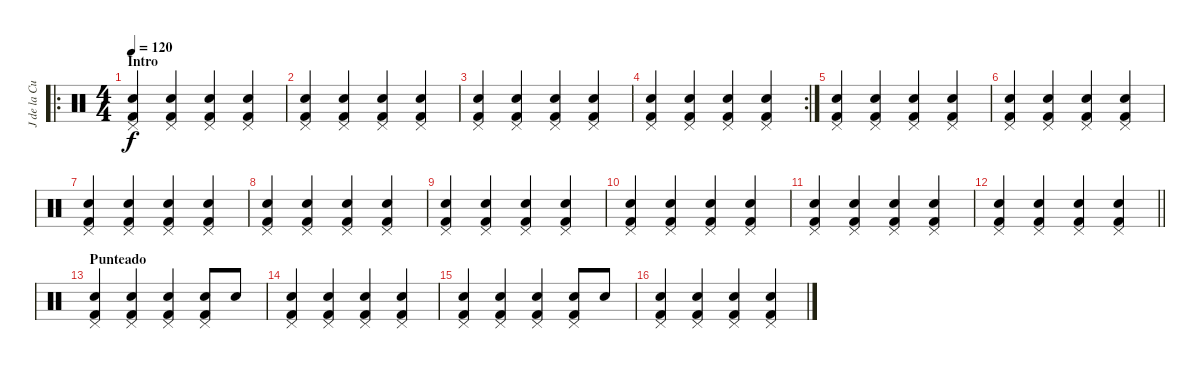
\track ("J de la Cueva" "J de la Cu") {instrument percussion}
\staff {score}
\articulation defaults
\ro
\ts (4 4)
\section ("" "Intro")
\tempo 120
\clef neutral
\ks c
("Snare (hit) 2" "Kick (hit) 2" "Pedal Hi-Hat (hit)").4{dy f} ("Snare (hit) 2" "Kick (hit) 2" "Pedal Hi-Hat (hit)").4 ("Snare (hit) 2" "Kick (hit) 2" "Pedal Hi-Hat (hit)").4 ("Snare (hit) 2" "Kick (hit) 2" "Pedal Hi-Hat (hit)").4 |
("Snare (hit) 2" "Kick (hit) 2" "Pedal Hi-Hat (hit)").4 ("Snare (hit) 2" "Kick (hit) 2" "Pedal Hi-Hat (hit)").4 ("Snare (hit) 2" "Kick (hit) 2" "Pedal Hi-Hat (hit)").4 ("Snare (hit) 2" "Kick (hit) 2" "Pedal Hi-Hat (hit)").4 |
("Snare (hit) 2" "Kick (hit) 2" "Pedal Hi-Hat (hit)").4 ("Snare (hit) 2" "Kick (hit) 2" "Pedal Hi-Hat (hit)").4 ("Snare (hit) 2" "Kick (hit) 2" "Pedal Hi-Hat (hit)").4 ("Snare (hit) 2" "Kick (hit) 2" "Pedal Hi-Hat (hit)").4 |
\rc 2
("Snare (hit) 2" "Kick (hit) 2" "Pedal Hi-Hat (hit)").4 ("Snare (hit) 2" "Kick (hit) 2" "Pedal Hi-Hat (hit)").4 ("Snare (hit) 2" "Kick (hit) 2" "Pedal Hi-Hat (hit)").4 ("Snare (hit) 2" "Kick (hit) 2" "Pedal Hi-Hat (hit)").4 |
("Snare (hit) 2" "Kick (hit) 2" "Pedal Hi-Hat (hit)").4 ("Snare (hit) 2" "Kick (hit) 2" "Pedal Hi-Hat (hit)").4 ("Snare (hit) 2" "Kick (hit) 2" "Pedal Hi-Hat (hit)").4 ("Snare (hit) 2" "Kick (hit) 2" "Pedal Hi-Hat (hit)").4 |
("Snare (hit) 2" "Kick (hit) 2" "Pedal Hi-Hat (hit)").4 ("Snare (hit) 2" "Kick (hit) 2" "Pedal Hi-Hat (hit)").4 ("Snare (hit) 2" "Kick (hit) 2" "Pedal Hi-Hat (hit)").4 ("Snare (hit) 2" "Kick (hit) 2" "Pedal Hi-Hat (hit)").4 |
("Snare (hit) 2" "Kick (hit) 2" "Pedal Hi-Hat (hit)").4 ("Snare (hit) 2" "Kick (hit) 2" "Pedal Hi-Hat (hit)").4 ("Snare (hit) 2" "Kick (hit) 2" "Pedal Hi-Hat (hit)").4 ("Snare (hit) 2" "Kick (hit) 2" "Pedal Hi-Hat (hit)").4 |
("Snare (hit) 2" "Kick (hit) 2" "Pedal Hi-Hat (hit)").4 ("Snare (hit) 2" "Kick (hit) 2" "Pedal Hi-Hat (hit)").4 ("Snare (hit) 2" "Kick (hit) 2" "Pedal Hi-Hat (hit)").4 ("Snare (hit) 2" "Kick (hit) 2" "Pedal Hi-Hat (hit)").4 |
("Snare (hit) 2" "Kick (hit) 2" "Pedal Hi-Hat (hit)").4 ("Snare (hit) 2" "Kick (hit) 2" "Pedal Hi-Hat (hit)").4 ("Snare (hit) 2" "Kick (hit) 2" "Pedal Hi-Hat (hit)").4 ("Snare (hit) 2" "Kick (hit) 2" "Pedal Hi-Hat (hit)").4 |
("Snare (hit) 2" "Kick (hit) 2" "Pedal Hi-Hat (hit)").4 ("Snare (hit) 2" "Kick (hit) 2" "Pedal Hi-Hat (hit)").4 ("Snare (hit) 2" "Kick (hit) 2" "Pedal Hi-Hat (hit)").4 ("Snare (hit) 2" "Kick (hit) 2" "Pedal Hi-Hat (hit)").4 |
("Snare (hit) 2" "Kick (hit) 2" "Pedal Hi-Hat (hit)").4 ("Snare (hit) 2" "Kick (hit) 2" "Pedal Hi-Hat (hit)").4 ("Snare (hit) 2" "Kick (hit) 2" "Pedal Hi-Hat (hit)").4 ("Snare (hit) 2" "Kick (hit) 2" "Pedal Hi-Hat (hit)").4 |
\barLineRight lightlight
("Snare (hit) 2" "Kick (hit) 2" "Pedal Hi-Hat (hit)").4 ("Snare (hit) 2" "Kick (hit) 2" "Pedal Hi-Hat (hit)").4 ("Snare (hit) 2" "Kick (hit) 2" "Pedal Hi-Hat (hit)").4 ("Snare (hit) 2" "Kick (hit) 2" "Pedal Hi-Hat (hit)").4 |
\section ("" "Punteado")
("Snare (hit) 2" "Kick (hit) 2" "Pedal Hi-Hat (hit)").4 ("Snare (hit) 2" "Kick (hit) 2" "Pedal Hi-Hat (hit)").4 ("Snare (hit) 2" "Kick (hit) 2" "Pedal Hi-Hat (hit)").4 ("Snare (hit) 2" "Kick (hit) 2" "Pedal Hi-Hat (hit)").8 "Electric Snare (hit)".8 |
("Snare (hit) 2" "Kick (hit) 2" "Pedal Hi-Hat (hit)").4 ("Snare (hit) 2" "Kick (hit) 2" "Pedal Hi-Hat (hit)").4 ("Snare (hit) 2" "Kick (hit) 2" "Pedal Hi-Hat (hit)").4 ("Snare (hit) 2" "Kick (hit) 2" "Pedal Hi-Hat (hit)").4 |
("Snare (hit) 2" "Kick (hit) 2" "Pedal Hi-Hat (hit)").4 ("Snare (hit) 2" "Kick (hit) 2" "Pedal Hi-Hat (hit)").4 ("Snare (hit) 2" "Kick (hit) 2" "Pedal Hi-Hat (hit)").4 ("Snare (hit) 2" "Kick (hit) 2" "Pedal Hi-Hat (hit)").8 "Electric Snare (hit)".8 |
("Snare (hit) 2" "Kick (hit) 2" "Pedal Hi-Hat (hit)").4 ("Snare (hit) 2" "Kick (hit) 2" "Pedal Hi-Hat (hit)").4 ("Snare (hit) 2" "Kick (hit) 2" "Pedal Hi-Hat (hit)").4 ("Snare (hit) 2" "Kick (hit) 2" "Pedal Hi-Hat (hit)").4
